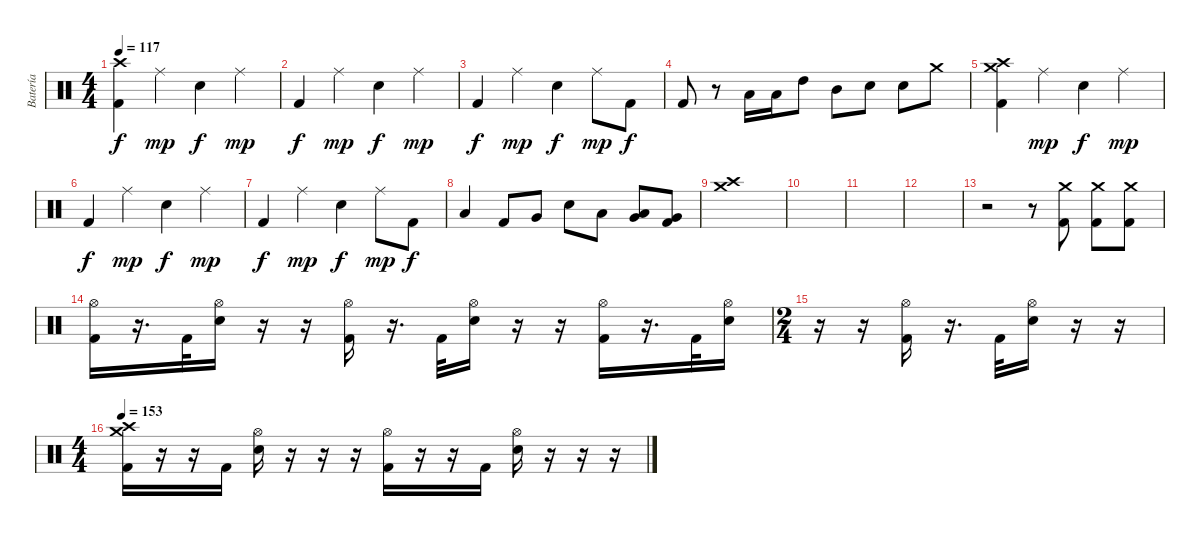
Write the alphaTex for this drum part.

\track ("Batería" "Batería") {instrument percussion}
\staff {score}
\articulation defaults
\ts (4 4)
\tempo 117
\clef neutral
\ks c
("Crash high (hit)" "Kick (hit) 2").4{dy f} "Ride (middle)".4{dy mp} "Snare (hit) 2".4{dy f} "Ride (middle)".4{dy mp} |
"Kick (hit) 2".4{dy f} "Ride (middle)".4{dy mp} "Snare (hit) 2".4{dy f} "Ride (middle)".4{dy mp} |
"Kick (hit) 2".4{dy f} "Ride (middle)".4{dy mp} "Snare (hit) 2".4{dy f} "Ride (middle)".8{dy mp} "Kick (hit) 2".8{dy f} |
"Kick (hit) 2".8 r.8 "Low Tom (hit)".16 "Low Tom (hit)".16 "High Tom (hit)".8 "Mid Tom (hit)".8 "Snare (hit) 2".8 "Snare (hit) 2".8 "Crash medium (hit)".8 |
("Crash high (hit)" "Crash medium (hit)" "Kick (hit) 2").4 "Ride (middle)".4{dy mp} "Snare (hit) 2".4{dy f} "Ride (middle)".4{dy mp} |
"Kick (hit) 2".4{dy f} "Ride (middle)".4{dy mp} "Snare (hit) 2".4{dy f} "Ride (middle)".4{dy mp} |
"Kick (hit) 2".4{dy f} "Ride (middle)".4{dy mp} "Snare (hit) 2".4{dy f} "Ride (middle)".8{dy mp} "Kick (hit) 2".8{dy f} |
"Low Tom (hit)".4 "Kick (hit) 2".8 "Very Low Tom (hit)".8 "Snare (hit) 2".8 "Low Tom (hit)".8 ("Low Tom (hit)" "Very Low Tom (hit)").8 ("Kick (hit) 2" "Very Low Tom (hit)").8 |
("Crash high (hit)" "Crash medium (hit)").1 |
|
|
|
r.2 r.8 ("Crash medium (hit)" "Kick (hit) 2").8 ("Crash medium (hit)" "Kick (hit) 2").8 ("Crash medium (hit)" "Kick (hit) 2").8 |
("Hi-Hat (open)" "Kick (hit) 2").16 r.16{d} "Kick (hit) 2".32 ("Hi-Hat (open)" "Snare (hit) 2").16 r.16 r.16 ("Hi-Hat (open)" "Kick (hit) 2").16 r.16{d} "Kick (hit) 2".32 ("Hi-Hat (open)" "Snare (hit) 2").16 r.16 r.16 ("Hi-Hat (open)" "Kick (hit) 2").16 r.16{d} "Kick (hit) 2".32 ("Hi-Hat (open)" "Snare (hit) 2").16 |
\ts (2 4)
r.16 r.16 ("Hi-Hat (open)" "Kick (hit) 2").16 r.16{d} "Kick (hit) 2".32 ("Hi-Hat (open)" "Snare (hit) 2").16 r.16 r.16 |
\ts (4 4)
\tempo 153
("Crash medium (hit)" "Crash high (hit)" "Kick (hit) 2").16 r.16 r.16 "Kick (hit) 2".16 ("Hi-Hat (open)" "Snare (hit) 2").16 r.16 r.16 r.16 ("Hi-Hat (open)" "Kick (hit) 2").16 r.16 r.16 "Kick (hit) 2".16 ("Hi-Hat (open)" "Snare (hit) 2").16 r.16 r.16 r.16
